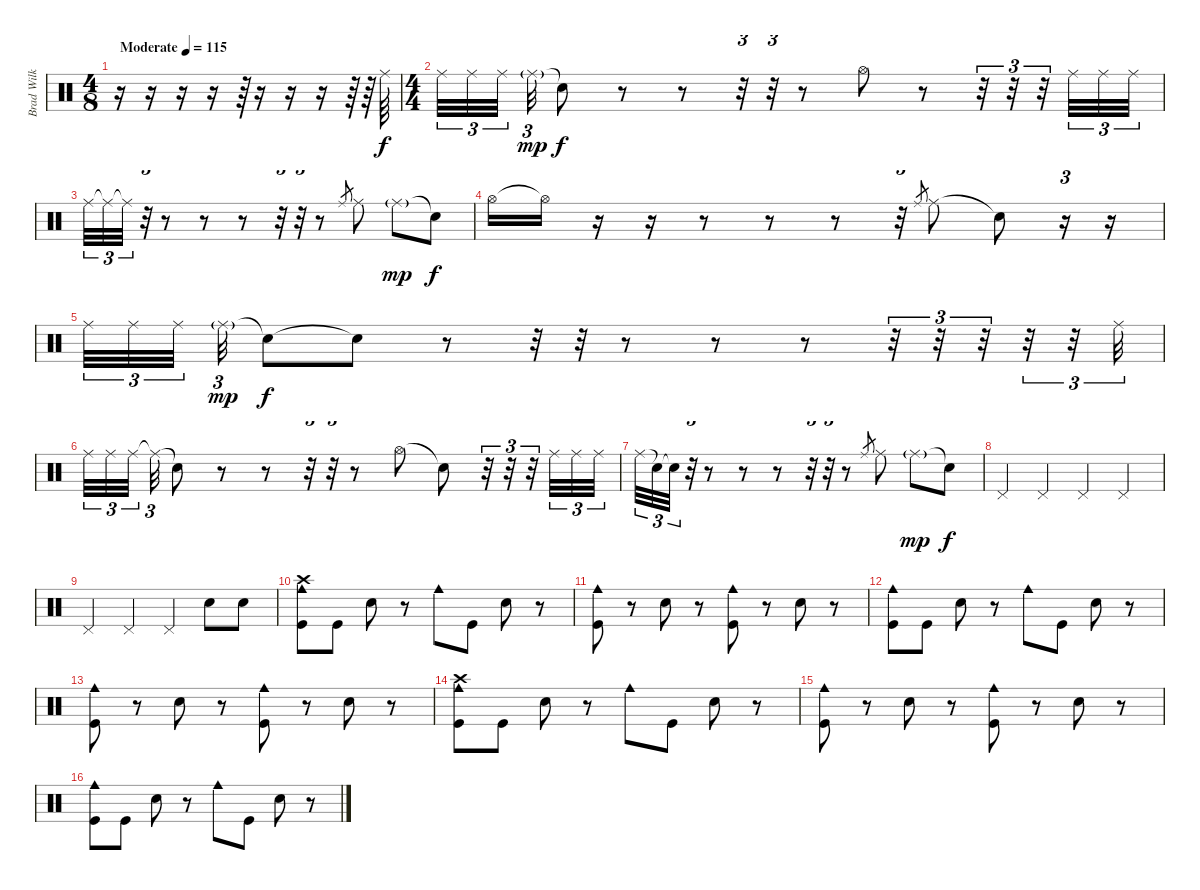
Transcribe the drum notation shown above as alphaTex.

\track ("Brad Wilk - Drums" "Brad Wilk ") {instrument percussion}
\staff {score}
\articulation defaults
\ts (4 8)
\tempo (115 "Moderate")
\clef neutral
\ks c
r.16{dy f} r.16 r.16 r.16 r.64 r.16 r.16 r.16 r.64 r.64 "Ride (middle)".64 |
\ts (4 4)
"Ride (middle)".32{tu (3 2)} "Ride (middle)".32{tu (3 2)} "Ride (middle)".32{tu (3 2) beam splitsecondary} "Ride (middle)"{g}.32{tu (3 2) dy mp} "Snare (hit)"{t}.8{dy f} r.8 r.8 r.32{tu (3 2)} r.32{tu (3 2)} r.8 "Hi-Hat (open)".8 r.8 r.32{tu (3 2)} r.32{tu (3 2)} r.32{tu (3 2)} "Ride (middle)".32{tu (3 2)} "Ride (middle)".32{tu (3 2)} "Ride (middle)".32{tu (3 2)} |
"Ride (middle)".32{tu (3 2)} "Ride (middle)"{t}.32{tu (3 2)} "Ride (middle)"{t}.32{tu (3 2)} r.32{tu (3 2)} r.8 r.8 r.8 r.32{tu (3 2)} r.32{tu (3 2)} r.8 "Ride (middle)".8{gr} "Ride (middle)".8 "Ride (middle)"{g}.8{dy mp} "Snare (hit)"{t}.8{dy f} |
"Hi-Hat (open)".16 "Hi-Hat (open)"{t}.16 r.16 r.16 r.8 r.8 r.8 r.32{tu (3 2)} "Ride (middle)".8{gr} "Ride (middle)".8 "Snare (hit)"{t}.8 r.16{tu (3 2)} r.16 |
"Ride (middle)".32{tu (3 2)} "Ride (middle)".32{tu (3 2)} "Ride (middle)".32{tu (3 2) beam splitsecondary} "Ride (middle)"{g}.32{tu (3 2) dy mp} "Snare (hit)"{t}.8{dy f} "Snare (hit)"{t}.8 r.8 r.32{tu (3 2)} r.32{tu (3 2)} r.8 r.8 r.8 r.32{tu (3 2)} r.32{tu (3 2)} r.32{tu (3 2)} r.32{tu (3 2)} r.32{tu (3 2)} "Ride (middle)".32{tu (3 2)} |
"Ride (middle)".32{tu (3 2)} "Ride (middle)".32{tu (3 2)} "Ride (middle)".32{tu (3 2) beam splitsecondary} "Ride (middle)"{t}.32{tu (3 2)} "Snare (hit)"{t}.8 r.8 r.8 r.32{tu (3 2)} r.32{tu (3 2)} r.8 "Hi-Hat (open)".8 "Snare (hit)"{t}.8 r.32{tu (3 2)} r.32{tu (3 2)} r.32{tu (3 2)} "Ride (middle)".32{tu (3 2)} "Ride (middle)".32{tu (3 2)} "Ride (middle)".32{tu (3 2)} |
"Ride (middle)".32{tu (3 2)} "Snare (hit)"{t}.32{tu (3 2)} "Snare (hit)"{t}.32{tu (3 2)} r.32{tu (3 2)} r.8 r.8 r.8 r.32{tu (3 2)} r.32{tu (3 2)} r.8 "Ride (middle)".8{gr} "Ride (middle)".8 "Ride (middle)"{g}.8{dy mp} "Snare (hit)"{t}.8{dy f} |
"Pedal Hi-Hat (hit)".4 "Pedal Hi-Hat (hit)".4 "Pedal Hi-Hat (hit)".4 "Pedal Hi-Hat (hit)".4 |
"Pedal Hi-Hat (hit)".4 "Pedal Hi-Hat (hit)".4 "Pedal Hi-Hat (hit)".4 "Snare (hit) 2".8 "Snare (hit) 2".8 |
("Crash high (hit)" "Cowbell medium (hit)" "Kick (hit)").8 "Kick (hit)".8 "Snare (hit) 2".8 r.8 "Cowbell medium (hit)".8 "Kick (hit)".8 "Snare (hit) 2".8 r.8 |
("Cowbell medium (hit)" "Kick (hit)").8 r.8 "Snare (hit) 2".8 r.8 ("Cowbell medium (hit)" "Kick (hit)").8 r.8 "Snare (hit) 2".8 r.8 |
("Cowbell medium (hit)" "Kick (hit)").8 "Kick (hit)".8 "Snare (hit) 2".8 r.8 "Cowbell medium (hit)".8 "Kick (hit)".8 "Snare (hit) 2".8 r.8 |
("Cowbell medium (hit)" "Kick (hit)").8 r.8 "Snare (hit) 2".8 r.8 ("Cowbell medium (hit)" "Kick (hit)").8 r.8 "Snare (hit) 2".8 r.8 |
("Crash high (hit)" "Cowbell medium (hit)" "Kick (hit)").8 "Kick (hit)".8 "Snare (hit) 2".8 r.8 "Cowbell medium (hit)".8 "Kick (hit)".8 "Snare (hit) 2".8 r.8 |
("Cowbell medium (hit)" "Kick (hit)").8 r.8 "Snare (hit) 2".8 r.8 ("Cowbell medium (hit)" "Kick (hit)").8 r.8 "Snare (hit) 2".8 r.8 |
("Cowbell medium (hit)" "Kick (hit)").8 "Kick (hit)".8 "Snare (hit) 2".8 r.8 "Cowbell medium (hit)".8 "Kick (hit)".8 "Snare (hit) 2".8 r.8
